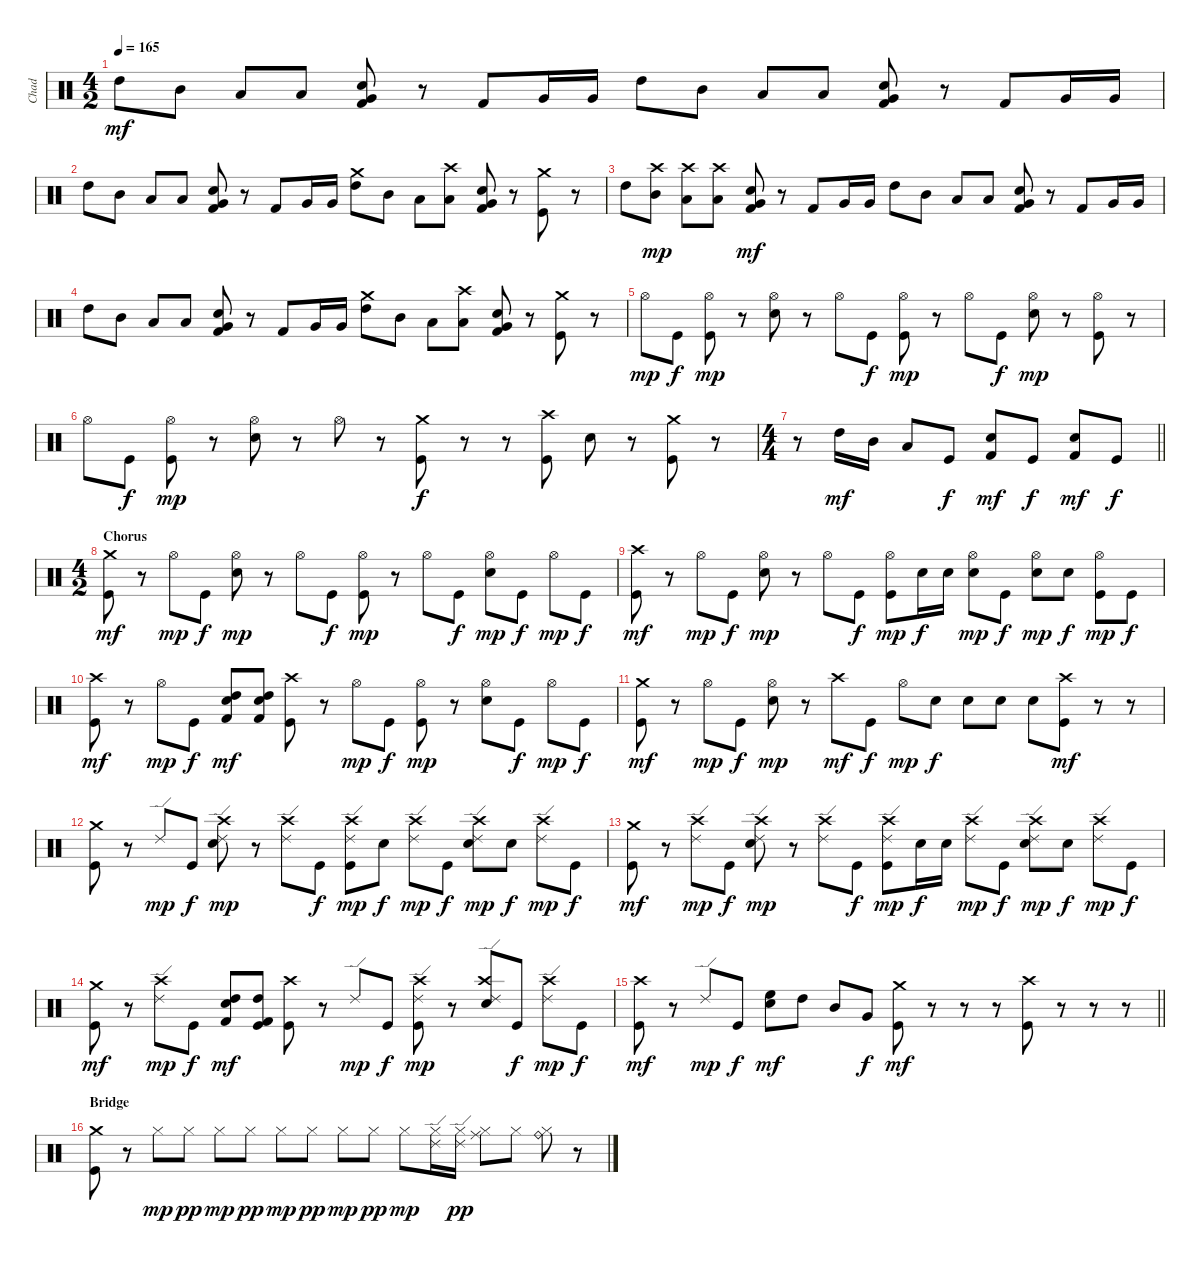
\track ("Chad" "Chad") {instrument percussion}
\staff {score}
\articulation defaults
\ts (4 2)
\tempo 165
\clef neutral
\ks c "High Tom (hit)".8{dy mf} "Mid Tom (hit)".8 "Low Tom (hit)".8 "Low Floor Tom (hit)".8
("Snare (hit) 2" "Kick (hit) 2" "Very Low Tom (hit)").8 r.8 "Kick (hit) 2".8 "Very Low Tom (hit)".16 "Very Low Tom (hit)".16 "High Tom (hit)".8 "Mid Tom (hit)".8 "Low Tom (hit)".8 "Low Floor Tom (hit)".8 ("Snare (hit) 2" "Kick (hit) 2" "Very Low Tom (hit)").8 r.8 "Kick (hit) 2".8 "Very Low Tom (hit)".16 "Very Low Tom (hit)".16 |
"High Tom (hit)".8 "Mid Tom (hit)".8 "Low Tom (hit)".8 "Low Floor Tom (hit)".8 ("Snare (hit) 2" "Kick (hit) 2" "Very Low Tom (hit)").8 r.8 "Kick (hit) 2".8 "Very Low Tom (hit)".16 "Very Low Tom (hit)".16 ("High Tom (hit)" "Crash medium (hit)").8 "Mid Tom (hit)".8 "Low Tom (hit)".8 ("Low Floor Tom (hit)" "Crash high (hit)").8 ("Snare (hit) 2" "Kick (hit) 2" "Very Low Tom (hit)").8 r.8 ("Kick (hit)" "Crash medium (hit)").8 r.8 |
"High Tom (hit)".8 ("Mid Tom (hit)" "Crash high (hit)").8{dy mp} ("Low Tom (hit)" "Crash high (hit)").8 ("Low Floor Tom (hit)" "Crash high (hit)").8 ("Snare (hit) 2" "Kick (hit) 2" "Very Low Tom (hit)").8{dy mf} r.8 "Kick (hit) 2".8 "Very Low Tom (hit)".16 "Very Low Tom (hit)".16 "High Tom (hit)".8 "Mid Tom (hit)".8 "Low Tom (hit)".8 "Low Floor Tom (hit)".8 ("Snare (hit) 2" "Kick (hit) 2" "Very Low Tom (hit)").8 r.8 "Kick (hit) 2".8 "Very Low Tom (hit)".16 "Very Low Tom (hit)".16 |
"High Tom (hit)".8 "Mid Tom (hit)".8 "Low Tom (hit)".8 "Low Floor Tom (hit)".8 ("Snare (hit) 2" "Kick (hit) 2" "Very Low Tom (hit)").8 r.8 "Kick (hit) 2".8 "Very Low Tom (hit)".16 "Very Low Tom (hit)".16 ("High Tom (hit)" "Crash medium (hit)").8 "Mid Tom (hit)".8 "Low Tom (hit)".8 ("Low Floor Tom (hit)" "Crash high (hit)").8 ("Snare (hit) 2" "Kick (hit) 2" "Very Low Tom (hit)").8 r.8 ("Kick (hit)" "Crash medium (hit)").8 r.8 |
"Hi-Hat (open)".8{dy mp} "Kick (hit)".8{dy f} ("Kick (hit)" "Hi-Hat (open)").8{dy mp} r.8 ("Snare (hit) 2" "Hi-Hat (open)").8 r.8 "Hi-Hat (open)".8 "Kick (hit)".8{dy f} ("Kick (hit)" "Hi-Hat (open)").8{dy mp} r.8 "Hi-Hat (open)".8 "Kick (hit)".8{dy f} ("Snare (hit) 2" "Hi-Hat (open)").8{dy mp} r.8 ("Kick (hit)" "Hi-Hat (open)").8 r.8 |
"Hi-Hat (open)".8 "Kick (hit)".8{dy f} ("Kick (hit)" "Hi-Hat (open)").8{dy mp} r.8 ("Snare (hit) 2" "Hi-Hat (open)").8 r.8 "Hi-Hat (open)".8 r.8 ("Kick (hit)" "Crash medium (hit)").8{dy f} r.8 r.8 ("Kick (hit)" "Crash high (hit)").8 "Snare (hit) 2".8 r.8 ("Kick (hit)" "Crash medium (hit)").8 r.8 |
\ts (4 4)
\barLineRight lightlight
r.8 "High Tom (hit)".16{dy mf} "Mid Tom (hit)".16 "Low Tom (hit)".8 "Kick (hit)".8{dy f} ("Snare (hit) 2" "Kick (hit) 2").8{dy mf} "Kick (hit)".8{dy f} ("Snare (hit) 2" "Kick (hit) 2").8{dy mf} "Kick (hit)".8{dy f} |
\ts (4 2)
\section ("" "Chorus")
("Kick (hit)" "Crash medium (hit)").8{dy mf} r.8 "Hi-Hat (open)".8{dy mp} "Kick (hit)".8{dy f} ("Snare (hit) 2" "Hi-Hat (open)").8{dy mp} r.8 "Hi-Hat (open)".8 "Kick (hit)".8{dy f} ("Kick (hit)" "Hi-Hat (open)").8{dy mp} r.8 "Hi-Hat (open)".8 "Kick (hit)".8{dy f} ("Snare (hit) 2" "Hi-Hat (open)").8{dy mp} "Kick (hit)".8{dy f} "Hi-Hat (open)".8{dy mp} "Kick (hit)".8{dy f} |
("Kick (hit)" "Crash high (hit)").8{dy mf} r.8 "Hi-Hat (open)".8{dy mp} "Kick (hit)".8{dy f} ("Snare (hit) 2" "Hi-Hat (open)").8{dy mp} r.8 "Hi-Hat (open)".8 "Kick (hit)".8{dy f} ("Kick (hit)" "Hi-Hat (open)").8{dy mp} "Snare (hit) 2".16{dy f} "Snare (hit) 2".16 ("Snare (hit) 2" "Hi-Hat (open)").8{dy mp} "Kick (hit)".8{dy f} ("Snare (hit) 2" "Hi-Hat (open)").8{dy mp} "Snare (hit) 2".8{dy f} ("Kick (hit)" "Hi-Hat (open)").8{dy mp} "Kick (hit)".8{dy f} |
("Kick (hit)" "Crash high (hit)").8{dy mf} r.8 "Hi-Hat (open)".8{dy mp} "Kick (hit)".8{dy f} ("Snare (hit) 2" "Kick (hit) 2" "High Tom (hit)").8{dy mf} ("Snare (hit) 2" "Kick (hit) 2" "High Tom (hit)").8 ("Kick (hit)" "Crash high (hit)").8 r.8 "Hi-Hat (open)".8{dy mp} "Kick (hit)".8{dy f} ("Kick (hit)" "Hi-Hat (open)").8{dy mp} r.8 ("Snare (hit) 2" "Hi-Hat (open)").8 "Kick (hit)".8{dy f} "Hi-Hat (open)".8{dy mp} "Kick (hit)".8{dy f} |
("Kick (hit)" "Crash medium (hit)").8{dy mf} r.8 "Hi-Hat (open)".8{dy mp} "Kick (hit)".8{dy f} ("Snare (hit) 2" "Hi-Hat (open)").8{dy mp} r.8 "Crash high (hit)".8{dy mf} "Kick (hit)".8{dy f} "Hi-Hat (open)".8{dy mp} "Snare (hit) 2".8{dy f} "Snare (hit) 2".8 "Snare (hit) 2".8 "Snare (hit) 2".8 ("Kick (hit)" "Crash high (hit)").8{dy mf} r.8 r.8 |
("Kick (hit)" "Crash medium (hit)").8 r.8 "Ride (edge) 2".8{dy mp} "Kick (hit)".8{dy f} ("Snare (hit) 2" "Ride (edge) 2" "Crash high (hit)").8{dy mp} r.8 ("Ride (edge) 2" "Crash high (hit)").8 "Kick (hit)".8{dy f} ("Kick (hit)" "Ride (edge) 2" "Crash high (hit)").8{dy mp} "Snare (hit) 2".8{dy f} ("Ride (edge) 2" "Crash high (hit)").8{dy mp} "Kick (hit)".8{dy f} ("Snare (hit) 2" "Ride (edge) 2" "Crash high (hit)").8{dy mp} "Snare (hit) 2".8{dy f} ("Ride (edge) 2" "Crash high (hit)").8{dy mp} "Kick (hit)".8{dy f} |
("Kick (hit)" "Crash medium (hit)").8{dy mf} r.8 ("Ride (edge) 2" "Crash high (hit)").8{dy mp} "Kick (hit)".8{dy f} ("Snare (hit) 2" "Ride (edge) 2" "Crash high (hit)").8{dy mp} r.8 ("Ride (edge) 2" "Crash high (hit)").8 "Kick (hit)".8{dy f} ("Kick (hit)" "Ride (edge) 2" "Crash high (hit)").8{dy mp} "Snare (hit) 2".16{dy f} "Snare (hit) 2".16 ("Ride (edge) 2" "Crash high (hit)").8{dy mp} "Kick (hit)".8{dy f} ("Snare (hit) 2" "Ride (edge) 2" "Crash high (hit)").8{dy mp} "Snare (hit) 2".8{dy f} ("Ride (edge) 2" "Crash high (hit)").8{dy mp} "Kick (hit)".8{dy f} |
("Kick (hit)" "Crash medium (hit)").8{dy mf} r.8 ("Ride (edge) 2" "Crash high (hit)").8{dy mp} "Kick (hit)".8{dy f} ("Snare (hit) 2" "High Tom (hit)" "Kick (hit) 2").8{dy mf} ("Kick (hit)" "High Tom (hit)" "Kick (hit) 2").8 ("Kick (hit)" "Crash high (hit)").8 r.8 "Ride (edge) 2".8{dy mp} "Kick (hit)".8{dy f} ("Kick (hit)" "Ride (edge) 2" "Crash high (hit)").8{dy mp} r.8 ("Snare (hit) 2" "Ride (edge) 2" "Crash high (hit)").8 "Kick (hit)".8{dy f} ("Ride (edge) 2" "Crash high (hit)").8{dy mp} "Kick (hit)".8{dy f} |
\barLineRight lightlight
("Kick (hit)" "Crash high (hit)").8{dy mf} r.8 "Ride (edge) 2".8{dy mp} "Kick (hit)".8{dy f} ("Snare (hit) 2" "High Floor Tom (hit)").8{dy mf} "High Tom (hit)".8 "Mid Tom (hit)".8 "Very Low Tom (hit)".8{dy f} ("Kick (hit)" "Crash medium (hit)").8{dy mf} r.8 r.8 r.8 ("Kick (hit)" "Crash high (hit)").8 r.8 r.8 r.8 |
\section ("" "Bridge")
("Kick (hit)" "Crash medium (hit)").8 r.8 "Hi-Hat (closed)".8{dy mp} "Hi-Hat (closed)".8{dy pp} "Hi-Hat (closed)".8{dy mp} "Hi-Hat (closed)".8{dy pp} "Hi-Hat (closed)".8{dy mp} "Hi-Hat (closed)".8{dy pp} "Hi-Hat (closed)".8{dy mp} "Hi-Hat (closed)".8{dy pp} "Hi-Hat (closed)".8{dy mp} ("Ride (edge) 2" "Hi-Hat (closed)").16 ("Ride (edge) 2" "Hi-Hat (closed)").16{dy pp} ("Ride (middle)" "Hi-Hat (closed)").8 "Hi-Hat (closed)".8 ("Ride (bell)" "Hi-Hat (closed)").8 r.8
